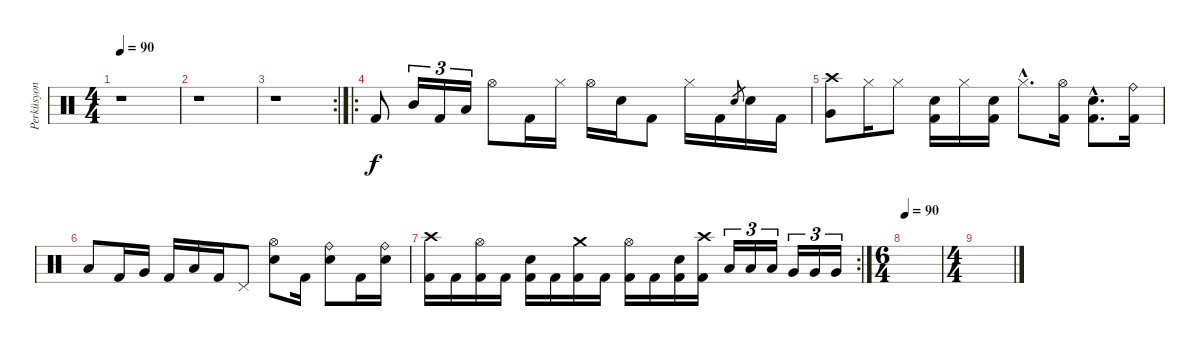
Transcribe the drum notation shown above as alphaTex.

\track ("Perküsyon" "Perküsyon") {instrument percussion}
\staff {score}
\articulation defaults
\ts (4 4)
\tempo 90
\clef neutral
\ks c
r.1{dy f} |
r.1 |
\rc 2
r.1 |
\ro "Kick (hit) 2".8 "Mid Tom (hit)".16{tu (3 2)} "Kick (hit) 2".16{tu (3 2)} "Low Tom (hit)".16{tu (3 2)} "Hi-Hat (open)".8 "Kick (hit) 2".16 "Hi-Hat (closed)".16 "Hi-Hat (open)".16 "Snare (hit) 2".16 "Kick (hit) 2".8 "Hi-Hat (closed)".16 "Kick (hit) 2".16 "Snare (hit) 2".8{gr} "Snare (hit) 2".16 "Kick (hit) 2".16
|
("Very Low Tom (hit)" "Crash high (hit)").8 "Hi-Hat (closed)".16 "Hi-Hat (closed)".8 ("Kick (hit) 2" "Snare (hit) 2").16 "Hi-Hat (closed)".16 ("Kick (hit) 2" "Snare (hit) 2").16 "Hi-Hat (closed)"{hac}.8{d} ("Kick (hit) 2" "Hi-Hat (open)").16 ("Kick (hit) 2"{hac} "Snare (hit) 2"{hac}).8{d} ("Kick (hit) 2" "Ride (bell)").16 |
"Low Tom (hit)".8 "Kick (hit) 2".16 "Very Low Tom (hit)".16 "Kick (hit) 2".16 "Low Tom (hit)".16 "Kick (hit) 2".16 "Pedal Hi-Hat (hit)".8 ("Hi-Hat (open)" "Snare (hit) 2").8 "Kick (hit) 2".16 ("Ride (bell)" "Snare (hit) 2").8 "Kick (hit) 2".16 ("Ride (bell)" "Snare (hit) 2").16 |
\rc 2
("Crash high (hit)" "Kick (hit) 2").16 "Kick (hit) 2".16 ("Hi-Hat (open)" "Kick (hit) 2").16 "Kick (hit) 2".16 ("Snare (hit) 2" "Kick (hit) 2").16 "Kick (hit) 2".16 ("Crash medium (hit)" "Kick (hit) 2").16 "Kick (hit) 2".16 ("Hi-Hat (open)" "Kick (hit) 2").16 "Kick (hit) 2".16 ("Snare (hit) 2" "Kick (hit) 2").16 ("Crash high (hit)" "Kick (hit) 2").16 "Low Tom (hit)".16{tu (3 2)} "Low Tom (hit)".16{tu (3 2)} "Low Tom (hit)".16{tu (3 2)} "Very Low Tom (hit)".16{tu (3 2)} "Very Low Tom (hit)".16{tu (3 2)} "Very Low Tom (hit)".16{tu (3 2)} |
\ts (6 4)
\tempo 90
|
\ts (4 4)
